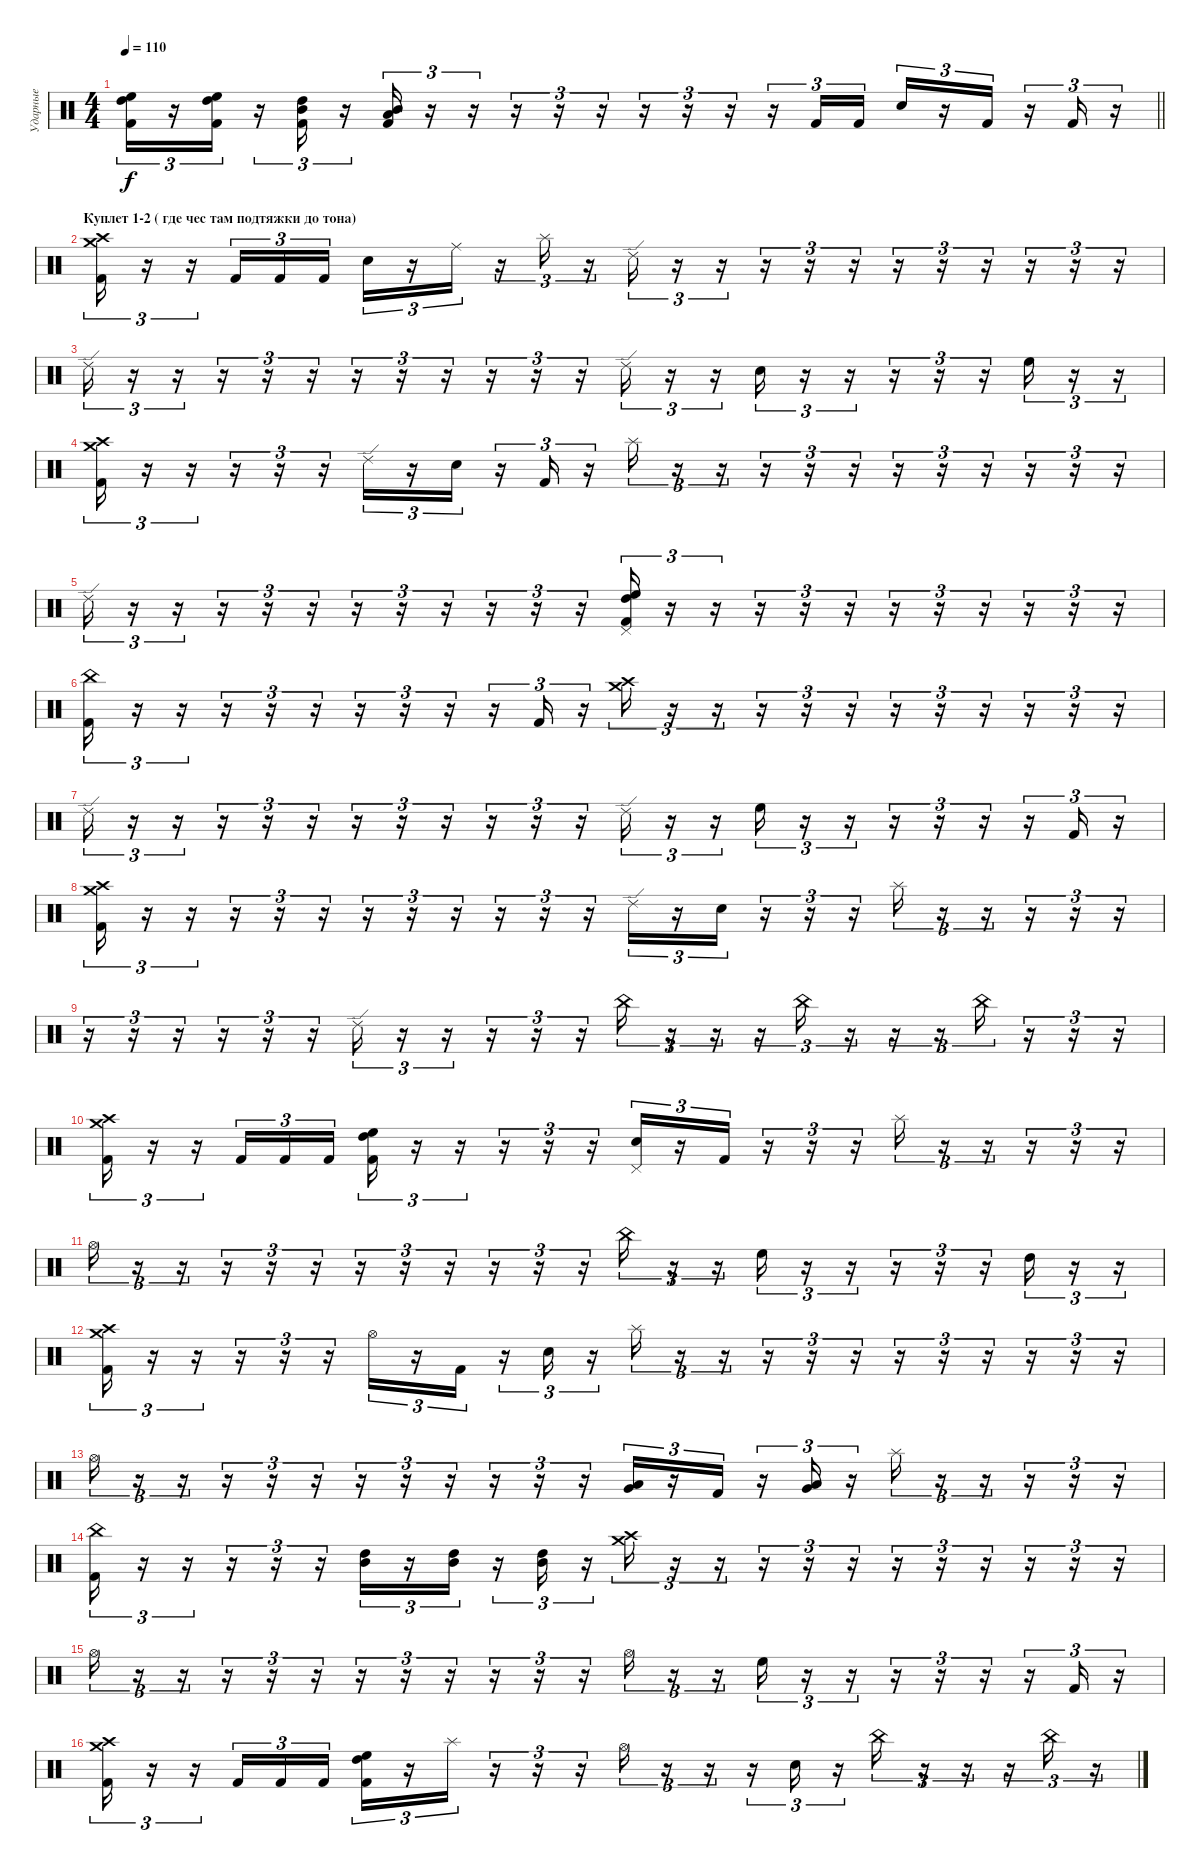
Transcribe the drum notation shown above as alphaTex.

\track ("Ударные" "Ударные") {instrument percussion}
\staff {score}
\articulation defaults
\ts (4 4)
\tempo 110
\clef neutral
\barLineRight lightlight
\ks c
("High Floor Tom (hit)" "High Tom (hit)" "Kick (hit) 2").16{tu (3 2) dy f} r.16{tu (3 2)} ("High Floor Tom (hit)" "High Tom (hit)" "Kick (hit) 2").16{tu (3 2)} r.16{tu (3 2)} ("High Tom (hit)" "Mid Tom (hit)" "Kick (hit) 2").16{tu (3 2)} r.16{tu (3 2)} ("Mid Tom (hit)" "Low Tom (hit)" "Kick (hit) 2").16{tu (3 2)} r.16{tu (3 2)} r.16{tu (3 2)} r.16{tu (3 2)} r.16{tu (3 2)} r.16{tu (3 2)} r.16{tu (3 2)} r.16{tu (3 2)} r.16{tu (3 2)} r.16{tu (3 2)} "Kick (hit) 2".16{tu (3 2)} "Kick (hit) 2".16{tu (3 2)} "Electric Snare (hit)".16{tu (3 2)} r.16{tu (3 2)} "Kick (hit) 2".16{tu (3 2)} r.16{tu (3 2)} "Kick (hit) 2".16{tu (3 2)} r.16{tu (3 2)} |
\section ("" "Куплет 1-2 ( где чес там подтяжки до тона)")
("Crash high (hit)" "Crash medium (hit)" "Kick (hit) 2").16{tu (3 2)} r.16{tu (3 2)} r.16{tu (3 2)} "Kick (hit) 2".16{tu (3 2)} "Kick (hit) 2".16{tu (3 2)} "Kick (hit) 2".16{tu (3 2)} "Electric Snare (hit)".16{tu (3 2)} r.16{tu (3 2)} "Ride (middle)".16{tu (3 2)} r.16{tu (3 2)} "Splash (hit)".16{tu (3 2)} r.16{tu (3 2)} "Ride (edge) 2".16{tu (3 2)} r.16{tu (3 2)} r.16{tu (3 2)} r.16{tu (3 2)} r.16{tu (3 2)} r.16{tu (3 2)} r.16{tu (3 2)} r.16{tu (3 2)} r.16{tu (3 2)} r.16{tu (3 2)} r.16{tu (3 2)} r.16{tu (3 2)} |
"Ride (edge) 2".16{tu (3 2)} r.16{tu (3 2)} r.16{tu (3 2)} r.16{tu (3 2)} r.16{tu (3 2)} r.16{tu (3 2)} r.16{tu (3 2)} r.16{tu (3 2)} r.16{tu (3 2)} r.16{tu (3 2)} r.16{tu (3 2)} r.16{tu (3 2)} "Ride (edge) 2".16{tu (3 2)} r.16{tu (3 2)} r.16{tu (3 2)} "Electric Snare (hit)".16{tu (3 2)} r.16{tu (3 2)} r.16{tu (3 2)} r.16{tu (3 2)} r.16{tu (3 2)} r.16{tu (3 2)} "High Floor Tom (hit)".16{tu (3 2)} r.16{tu (3 2)} r.16{tu (3 2)} |
("Crash medium (hit)" "Crash high (hit)" "Kick (hit) 2").16{tu (3 2)} r.16{tu (3 2)} r.16{tu (3 2)} r.16{tu (3 2)} r.16{tu (3 2)} r.16{tu (3 2)} "Ride (edge) 2".16{tu (3 2)} r.16{tu (3 2)} "Electric Snare (hit)".16{tu (3 2)} r.16{tu (3 2)} "Kick (hit) 2".16{tu (3 2)} r.16{tu (3 2)} "Splash (hit)".16{tu (3 2)} r.16{tu (3 2)} r.16{tu (3 2)} r.16{tu (3 2)} r.16{tu (3 2)} r.16{tu (3 2)} r.16{tu (3 2)} r.16{tu (3 2)} r.16{tu (3 2)} r.16{tu (3 2)} r.16{tu (3 2)} r.16{tu (3 2)} |
"Ride (edge) 2".16{tu (3 2)} r.16{tu (3 2)} r.16{tu (3 2)} r.16{tu (3 2)} r.16{tu (3 2)} r.16{tu (3 2)} r.16{tu (3 2)} r.16{tu (3 2)} r.16{tu (3 2)} r.16{tu (3 2)} r.16{tu (3 2)} r.16{tu (3 2)} ("Pedal Hi-Hat (hit)" "High Floor Tom (hit)" "High Tom (hit)" "Kick (hit) 2").16{tu (3 2)} r.16{tu (3 2)} r.16{tu (3 2)} r.16{tu (3 2)} r.16{tu (3 2)} r.16{tu (3 2)} r.16{tu (3 2)} r.16{tu (3 2)} r.16{tu (3 2)} r.16{tu (3 2)} r.16{tu (3 2)} r.16{tu (3 2)} |
("China (hit)" "Kick (hit) 2").16{tu (3 2)} r.16{tu (3 2)} r.16{tu (3 2)} r.16{tu (3 2)} r.16{tu (3 2)} r.16{tu (3 2)} r.16{tu (3 2)} r.16{tu (3 2)} r.16{tu (3 2)} r.16{tu (3 2)} "Kick (hit) 2".16{tu (3 2)} r.16{tu (3 2)} ("Crash medium (hit)" "Crash high (hit)").16{tu (3 2)} r.16{tu (3 2)} r.16{tu (3 2)} r.16{tu (3 2)} r.16{tu (3 2)} r.16{tu (3 2)} r.16{tu (3 2)} r.16{tu (3 2)} r.16{tu (3 2)} r.16{tu (3 2)} r.16{tu (3 2)} r.16{tu (3 2)} |
"Ride (edge) 2".16{tu (3 2)} r.16{tu (3 2)} r.16{tu (3 2)} r.16{tu (3 2)} r.16{tu (3 2)} r.16{tu (3 2)} r.16{tu (3 2)} r.16{tu (3 2)} r.16{tu (3 2)} r.16{tu (3 2)} r.16{tu (3 2)} r.16{tu (3 2)} "Ride (edge) 2".16{tu (3 2)} r.16{tu (3 2)} r.16{tu (3 2)} "High Floor Tom (hit)".16{tu (3 2)} r.16{tu (3 2)} r.16{tu (3 2)} r.16{tu (3 2)} r.16{tu (3 2)} r.16{tu (3 2)} r.16{tu (3 2)} "Kick (hit) 2".16{tu (3 2)} r.16{tu (3 2)} |
("Crash medium (hit)" "Crash high (hit)" "Kick (hit) 2").16{tu (3 2)} r.16{tu (3 2)} r.16{tu (3 2)} r.16{tu (3 2)} r.16{tu (3 2)} r.16{tu (3 2)} r.16{tu (3 2)} r.16{tu (3 2)} r.16{tu (3 2)} r.16{tu (3 2)} r.16{tu (3 2)} r.16{tu (3 2)} "Ride (edge) 2".16{tu (3 2)} r.16{tu (3 2)} "Electric Snare (hit)".16{tu (3 2)} r.16{tu (3 2)} r.16{tu (3 2)} r.16{tu (3 2)} "Splash (hit)".16{tu (3 2)} r.16{tu (3 2)} r.16{tu (3 2)} r.16{tu (3 2)} r.16{tu (3 2)} r.16{tu (3 2)} |
r.16{tu (3 2)} r.16{tu (3 2)} r.16{tu (3 2)} r.16{tu (3 2)} r.16{tu (3 2)} r.16{tu (3 2)} "Ride (edge) 2".16{tu (3 2)} r.16{tu (3 2)} r.16{tu (3 2)} r.16{tu (3 2)} r.16{tu (3 2)} r.16{tu (3 2)} "China (hit)".16{tu (3 2)} r.16{tu (3 2)} r.16{tu (3 2)} r.16{tu (3 2)} "China (hit)".16{tu (3 2)} r.16{tu (3 2)} r.16{tu (3 2)} r.16{tu (3 2)} "China (hit)".16{tu (3 2)} r.16{tu (3 2)} r.16{tu (3 2)} r.16{tu (3 2)} |
("Crash high (hit)" "Crash medium (hit)" "Kick (hit) 2").16{tu (3 2)} r.16{tu (3 2)} r.16{tu (3 2)} "Kick (hit) 2".16{tu (3 2)} "Kick (hit) 2".16{tu (3 2)} "Kick (hit) 2".16{tu (3 2)} ("High Tom (hit)" "High Floor Tom (hit)" "Kick (hit) 2").16{tu (3 2)} r.16{tu (3 2)} r.16{tu (3 2)} r.16{tu (3 2)} r.16{tu (3 2)} r.16{tu (3 2)} ("Pedal Hi-Hat (hit)" "Electric Snare (hit)").16{tu (3 2)} r.16{tu (3 2)} "Kick (hit) 2".16{tu (3 2)} r.16{tu (3 2)} r.16{tu (3 2)} r.16{tu (3 2)} "Splash (hit)".16{tu (3 2)} r.16{tu (3 2)} r.16{tu (3 2)} r.16{tu (3 2)} r.16{tu (3 2)} r.16{tu (3 2)} |
"Hi-Hat (open)".16{tu (3 2)} r.16{tu (3 2)} r.16{tu (3 2)} r.16{tu (3 2)} r.16{tu (3 2)} r.16{tu (3 2)} r.16{tu (3 2)} r.16{tu (3 2)} r.16{tu (3 2)} r.16{tu (3 2)} r.16{tu (3 2)} r.16{tu (3 2)} "China (hit)".16{tu (3 2)} r.16{tu (3 2)} r.16{tu (3 2)} "High Floor Tom (hit)".16{tu (3 2)} r.16{tu (3 2)} r.16{tu (3 2)} r.16{tu (3 2)} r.16{tu (3 2)} r.16{tu (3 2)} "High Tom (hit)".16{tu (3 2)} r.16{tu (3 2)} r.16{tu (3 2)} |
("Crash medium (hit)" "Crash high (hit)" "Kick (hit) 2").16{tu (3 2)} r.16{tu (3 2)} r.16{tu (3 2)} r.16{tu (3 2)} r.16{tu (3 2)} r.16{tu (3 2)} "Hi-Hat (open)".16{tu (3 2)} r.16{tu (3 2)} "Kick (hit) 2".16{tu (3 2)} r.16{tu (3 2)} "Electric Snare (hit)".16{tu (3 2)} r.16{tu (3 2)} "Splash (hit)".16{tu (3 2)} r.16{tu (3 2)} r.16{tu (3 2)} r.16{tu (3 2)} r.16{tu (3 2)} r.16{tu (3 2)} r.16{tu (3 2)} r.16{tu (3 2)} r.16{tu (3 2)} r.16{tu (3 2)} r.16{tu (3 2)} r.16{tu (3 2)} |
"Hi-Hat (open)".16{tu (3 2)} r.16{tu (3 2)} r.16{tu (3 2)} r.16{tu (3 2)} r.16{tu (3 2)} r.16{tu (3 2)} r.16{tu (3 2)} r.16{tu (3 2)} r.16{tu (3 2)} r.16{tu (3 2)} r.16{tu (3 2)} r.16{tu (3 2)} ("Very Low Tom (hit)" "Low Tom (hit)").16{tu (3 2)} r.16{tu (3 2)} "Kick (hit) 2".16{tu (3 2)} r.16{tu (3 2)} ("Low Tom (hit)" "Very Low Tom (hit)").16{tu (3 2)} r.16{tu (3 2)} "Splash (hit)".16{tu (3 2)} r.16{tu (3 2)} r.16{tu (3 2)} r.16{tu (3 2)} r.16{tu (3 2)} r.16{tu (3 2)} |
("China (hit)" "Kick (hit) 2").16{tu (3 2)} r.16{tu (3 2)} r.16{tu (3 2)} r.16{tu (3 2)} r.16{tu (3 2)} r.16{tu (3 2)} ("High Tom (hit)" "Mid Tom (hit)").16{tu (3 2)} r.16{tu (3 2)} ("High Tom (hit)" "Mid Tom (hit)").16{tu (3 2)} r.16{tu (3 2)} ("High Tom (hit)" "Mid Tom (hit)").16{tu (3 2)} r.16{tu (3 2)} ("Crash medium (hit)" "Crash high (hit)").16{tu (3 2)} r.16{tu (3 2)} r.16{tu (3 2)} r.16{tu (3 2)} r.16{tu (3 2)} r.16{tu (3 2)} r.16{tu (3 2)} r.16{tu (3 2)} r.16{tu (3 2)} r.16{tu (3 2)} r.16{tu (3 2)} r.16{tu (3 2)} |
"Hi-Hat (open)".16{tu (3 2)} r.16{tu (3 2)} r.16{tu (3 2)} r.16{tu (3 2)} r.16{tu (3 2)} r.16{tu (3 2)} r.16{tu (3 2)} r.16{tu (3 2)} r.16{tu (3 2)} r.16{tu (3 2)} r.16{tu (3 2)} r.16{tu (3 2)} "Hi-Hat (open)".16{tu (3 2)} r.16{tu (3 2)} r.16{tu (3 2)} "High Floor Tom (hit)".16{tu (3 2)} r.16{tu (3 2)} r.16{tu (3 2)} r.16{tu (3 2)} r.16{tu (3 2)} r.16{tu (3 2)} r.16{tu (3 2)} "Kick (hit) 2".16{tu (3 2)} r.16{tu (3 2)} |
("Crash medium (hit)" "Crash high (hit)" "Kick (hit) 2").16{tu (3 2)} r.16{tu (3 2)} r.16{tu (3 2)} "Kick (hit) 2".16{tu (3 2)} "Kick (hit) 2".16{tu (3 2)} "Kick (hit) 2".16{tu (3 2)} ("High Tom (hit)" "High Floor Tom (hit)" "Kick (hit) 2").16{tu (3 2)} r.16{tu (3 2)} "Splash (hit)".16{tu (3 2)} r.16{tu (3 2)} r.16{tu (3 2)} r.16{tu (3 2)} "Hi-Hat (open)".16{tu (3 2)} r.16{tu (3 2)} r.16{tu (3 2)} r.16{tu (3 2)} "Electric Snare (hit)".16{tu (3 2)} r.16{tu (3 2)} "China (hit)".16{tu (3 2)} r.16{tu (3 2)} r.16{tu (3 2)} r.16{tu (3 2)} "China (hit)".16{tu (3 2)} r.16{tu (3 2)}
